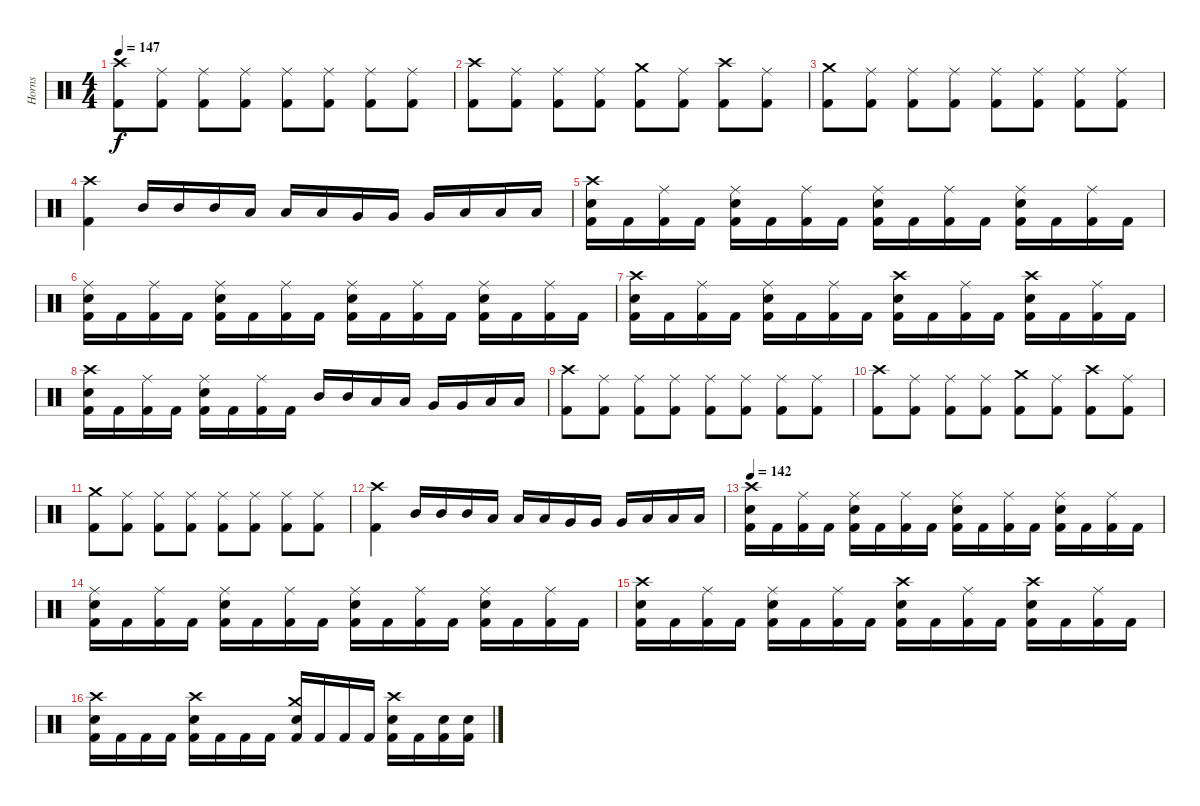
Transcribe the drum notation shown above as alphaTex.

\track ("Horns" "Horns") {instrument percussion}
\staff {score}
\articulation defaults
\ts (4 4)
\tempo 147
\clef neutral
\ks c
("Crash high (hit)" "Kick (hit) 2").8{dy f} ("Ride (middle)" "Kick (hit) 2").8 ("Ride (middle)" "Kick (hit) 2").8 ("Ride (middle)" "Kick (hit) 2").8 ("Ride (middle)" "Kick (hit) 2").8 ("Ride (middle)" "Kick (hit) 2").8 ("Ride (middle)" "Kick (hit) 2").8 ("Ride (middle)" "Kick (hit) 2").8 |
("Crash high (hit)" "Kick (hit) 2").8 ("Ride (middle)" "Kick (hit) 2").8 ("Ride (middle)" "Kick (hit) 2").8 ("Ride (middle)" "Kick (hit) 2").8 ("Crash medium (hit)" "Kick (hit) 2").8 ("Ride (middle)" "Kick (hit) 2").8 ("Crash high (hit)" "Kick (hit) 2").8 ("Ride (middle)" "Kick (hit) 2").8 |
("Crash medium (hit)" "Kick (hit) 2").8 ("Ride (middle)" "Kick (hit) 2").8 ("Ride (middle)" "Kick (hit) 2").8 ("Ride (middle)" "Kick (hit) 2").8 ("Ride (middle)" "Kick (hit) 2").8 ("Ride (middle)" "Kick (hit) 2").8 ("Ride (middle)" "Kick (hit) 2").8 ("Ride (middle)" "Kick (hit) 2").8 |
("Crash high (hit)" "Kick (hit) 2").4 "Mid Tom (hit)".16 "Mid Tom (hit)".16 "Mid Tom (hit)".16 "Low Tom (hit)".16 "Low Tom (hit)".16 "Low Tom (hit)".16 "Very Low Tom (hit)".16 "Very Low Tom (hit)".16 "Very Low Tom (hit)".16 "Low Floor Tom (hit)".16 "Low Floor Tom (hit)".16 "Low Floor Tom (hit)".16 |
("Crash high (hit)" "Snare (hit) 2" "Kick (hit) 2").16 "Kick (hit) 2".16 ("Ride (middle)" "Kick (hit) 2").16 "Kick (hit) 2".16 ("Ride (middle)" "Snare (hit) 2" "Kick (hit) 2").16 "Kick (hit) 2".16 ("Ride (middle)" "Kick (hit) 2").16 "Kick (hit) 2".16 ("Ride (middle)" "Snare (hit) 2" "Kick (hit) 2").16 "Kick (hit) 2".16 ("Ride (middle)" "Kick (hit) 2").16 "Kick (hit) 2".16 ("Ride (middle)" "Snare (hit) 2" "Kick (hit) 2").16 "Kick (hit) 2".16 ("Ride (middle)" "Kick (hit) 2").16 "Kick (hit) 2".16 |
("Ride (middle)" "Snare (hit) 2" "Kick (hit) 2").16 "Kick (hit) 2".16 ("Ride (middle)" "Kick (hit) 2").16 "Kick (hit) 2".16 ("Ride (middle)" "Snare (hit) 2" "Kick (hit) 2").16 "Kick (hit) 2".16 ("Ride (middle)" "Kick (hit) 2").16 "Kick (hit) 2".16 ("Ride (middle)" "Snare (hit) 2" "Kick (hit) 2").16 "Kick (hit) 2".16 ("Ride (middle)" "Kick (hit) 2").16 "Kick (hit) 2".16 ("Ride (middle)" "Snare (hit) 2" "Kick (hit) 2").16 "Kick (hit) 2".16 ("Ride (middle)" "Kick (hit) 2").16 "Kick (hit) 2".16 |
("Crash high (hit)" "Snare (hit) 2" "Kick (hit) 2").16 "Kick (hit) 2".16 ("Ride (middle)" "Kick (hit) 2").16 "Kick (hit) 2".16 ("Ride (middle)" "Snare (hit) 2" "Kick (hit) 2").16 "Kick (hit) 2".16 ("Ride (middle)" "Kick (hit) 2").16 "Kick (hit) 2".16 ("Crash high (hit)" "Snare (hit) 2" "Kick (hit) 2").16 "Kick (hit) 2".16 ("Ride (middle)" "Kick (hit) 2").16 "Kick (hit) 2".16 ("Crash high (hit)" "Snare (hit) 2" "Kick (hit) 2").16 "Kick (hit) 2".16 ("Ride (middle)" "Kick (hit) 2").16 "Kick (hit) 2".16 |
("Crash high (hit)" "Snare (hit) 2" "Kick (hit) 2").16 "Kick (hit) 2".16 ("Ride (middle)" "Kick (hit) 2").16 "Kick (hit) 2".16 ("Ride (middle)" "Snare (hit) 2" "Kick (hit) 2").16 "Kick (hit) 2".16 ("Ride (middle)" "Kick (hit) 2").16 "Kick (hit) 2".16 "Mid Tom (hit)".16 "Mid Tom (hit)".16 "Low Tom (hit)".16 "Low Tom (hit)".16 "Very Low Tom (hit)".16 "Very Low Tom (hit)".16 "Low Floor Tom (hit)".16 "Low Floor Tom (hit)".16 |
("Crash high (hit)" "Kick (hit) 2").8 ("Ride (middle)" "Kick (hit) 2").8 ("Ride (middle)" "Kick (hit) 2").8 ("Ride (middle)" "Kick (hit) 2").8 ("Ride (middle)" "Kick (hit) 2").8 ("Ride (middle)" "Kick (hit) 2").8 ("Ride (middle)" "Kick (hit) 2").8 ("Ride (middle)" "Kick (hit) 2").8 |
("Crash high (hit)" "Kick (hit) 2").8 ("Ride (middle)" "Kick (hit) 2").8 ("Ride (middle)" "Kick (hit) 2").8 ("Ride (middle)" "Kick (hit) 2").8 ("Crash medium (hit)" "Kick (hit) 2").8 ("Ride (middle)" "Kick (hit) 2").8 ("Crash high (hit)" "Kick (hit) 2").8 ("Ride (middle)" "Kick (hit) 2").8 |
("Crash medium (hit)" "Kick (hit) 2").8 ("Ride (middle)" "Kick (hit) 2").8 ("Ride (middle)" "Kick (hit) 2").8 ("Ride (middle)" "Kick (hit) 2").8 ("Ride (middle)" "Kick (hit) 2").8 ("Ride (middle)" "Kick (hit) 2").8 ("Ride (middle)" "Kick (hit) 2").8 ("Ride (middle)" "Kick (hit) 2").8 |
("Crash high (hit)" "Kick (hit) 2").4 "Mid Tom (hit)".16 "Mid Tom (hit)".16 "Mid Tom (hit)".16 "Low Tom (hit)".16 "Low Tom (hit)".16 "Low Tom (hit)".16 "Very Low Tom (hit)".16 "Very Low Tom (hit)".16 "Very Low Tom (hit)".16 "Low Floor Tom (hit)".16 "Low Floor Tom (hit)".16 "Low Floor Tom (hit)".16 |
\tempo 142
("Crash high (hit)" "Snare (hit) 2" "Kick (hit) 2").16 "Kick (hit) 2".16 ("Ride (middle)" "Kick (hit) 2").16 "Kick (hit) 2".16 ("Ride (middle)" "Snare (hit) 2" "Kick (hit) 2").16 "Kick (hit) 2".16 ("Ride (middle)" "Kick (hit) 2").16 "Kick (hit) 2".16 ("Ride (middle)" "Snare (hit) 2" "Kick (hit) 2").16 "Kick (hit) 2".16 ("Ride (middle)" "Kick (hit) 2").16 "Kick (hit) 2".16 ("Ride (middle)" "Snare (hit) 2" "Kick (hit) 2").16 "Kick (hit) 2".16 ("Ride (middle)" "Kick (hit) 2").16 "Kick (hit) 2".16 |
("Ride (middle)" "Snare (hit) 2" "Kick (hit) 2").16 "Kick (hit) 2".16 ("Ride (middle)" "Kick (hit) 2").16 "Kick (hit) 2".16 ("Ride (middle)" "Snare (hit) 2" "Kick (hit) 2").16 "Kick (hit) 2".16 ("Ride (middle)" "Kick (hit) 2").16 "Kick (hit) 2".16 ("Ride (middle)" "Snare (hit) 2" "Kick (hit) 2").16 "Kick (hit) 2".16 ("Ride (middle)" "Kick (hit) 2").16 "Kick (hit) 2".16 ("Ride (middle)" "Snare (hit) 2" "Kick (hit) 2").16 "Kick (hit) 2".16 ("Ride (middle)" "Kick (hit) 2").16 "Kick (hit) 2".16 |
("Crash high (hit)" "Snare (hit) 2" "Kick (hit) 2").16 "Kick (hit) 2".16 ("Ride (middle)" "Kick (hit) 2").16 "Kick (hit) 2".16 ("Ride (middle)" "Snare (hit) 2" "Kick (hit) 2").16 "Kick (hit) 2".16 ("Ride (middle)" "Kick (hit) 2").16 "Kick (hit) 2".16 ("Crash high (hit)" "Snare (hit) 2" "Kick (hit) 2").16 "Kick (hit) 2".16 ("Ride (middle)" "Kick (hit) 2").16 "Kick (hit) 2".16 ("Crash high (hit)" "Snare (hit) 2" "Kick (hit) 2").16 "Kick (hit) 2".16 ("Ride (middle)" "Kick (hit) 2").16 "Kick (hit) 2".16 |
("Crash high (hit)" "Snare (hit) 2" "Kick (hit) 2").16 "Kick (hit) 2".16 "Kick (hit) 2".16 "Kick (hit) 2".16 ("Crash high (hit)" "Snare (hit) 2" "Kick (hit) 2").16 "Kick (hit) 2".16 "Kick (hit) 2".16 "Kick (hit) 2".16 ("Crash medium (hit)" "Snare (hit) 2" "Kick (hit) 2").16 "Kick (hit) 2".16 "Kick (hit) 2".16 "Kick (hit) 2".16 ("Crash high (hit)" "Snare (hit) 2" "Kick (hit) 2").16 "Kick (hit) 2".16 ("Snare (hit) 2" "Kick (hit) 2").16 ("Snare (hit) 2" "Kick (hit) 2").16
